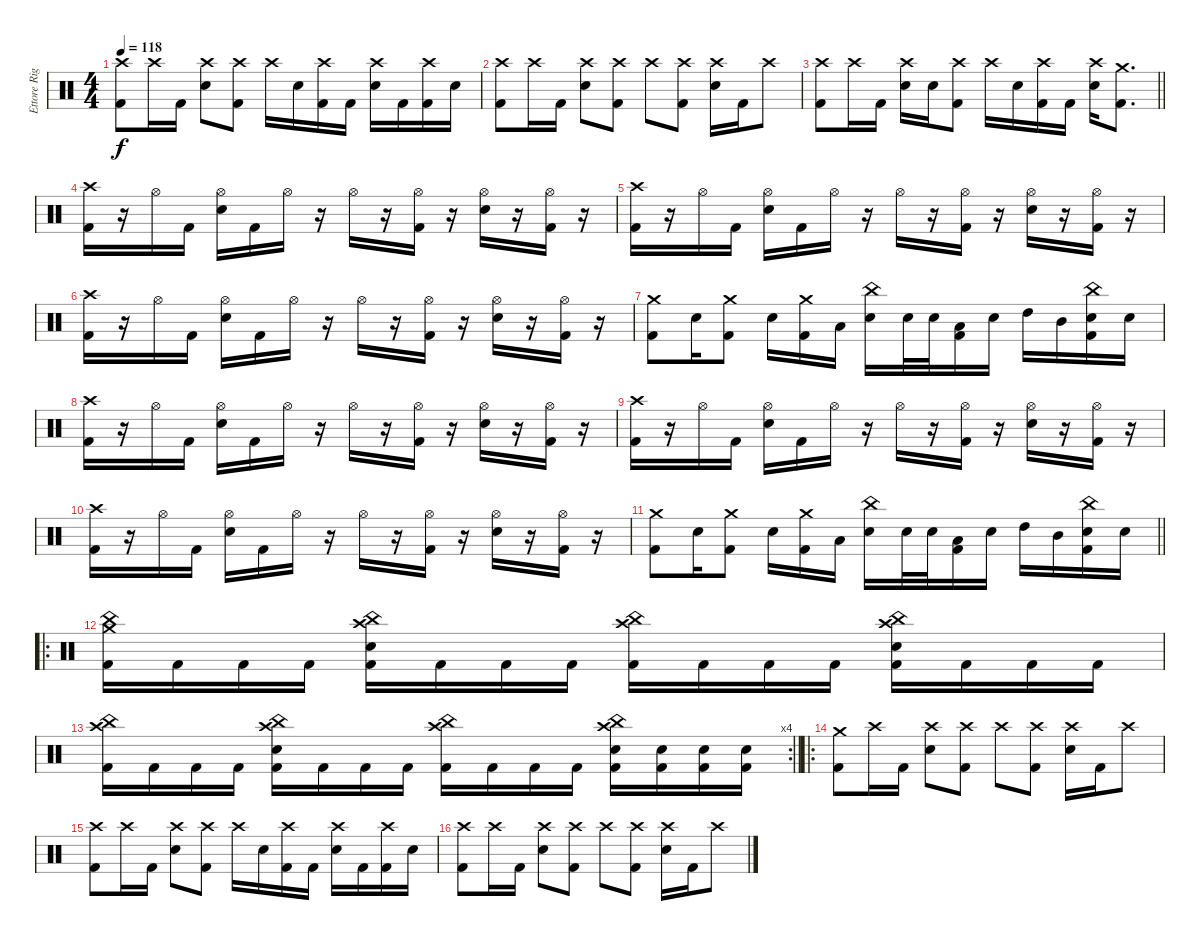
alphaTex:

\track ("Ettore Rigotti" "Ettore Rig") {instrument percussion}
\staff {score}
\articulation defaults
\ts (4 4)
\tempo 118
\clef neutral
\ks c
("Crash high (hit)" "Kick (hit) 2").8{dy f} "Crash high (hit)".16 "Kick (hit) 2".16 ("Crash high (hit)" "Electric Snare (hit)").8 ("Crash high (hit)" "Kick (hit) 2").8 "Crash high (hit)".16 "Electric Snare (hit)".16 ("Crash high (hit)" "Kick (hit) 2").16 "Kick (hit) 2".16 ("Crash high (hit)" "Electric Snare (hit)").16 "Kick (hit) 2".16 ("Crash high (hit)" "Kick (hit) 2").16 "Electric Snare (hit)".16 |
("Crash high (hit)" "Kick (hit) 2").8 "Crash high (hit)".16 "Kick (hit) 2".16 ("Crash high (hit)" "Electric Snare (hit)").8 ("Crash high (hit)" "Kick (hit) 2").8 "Crash high (hit)".8 ("Crash high (hit)" "Kick (hit) 2").8 ("Crash high (hit)" "Electric Snare (hit)").16 "Kick (hit) 2".16 "Crash high (hit)".8 |
\barLineRight lightlight
("Crash high (hit)" "Kick (hit) 2").8 "Crash high (hit)".16 "Kick (hit) 2".16 ("Crash high (hit)" "Electric Snare (hit)").16 "Electric Snare (hit)".16 ("Crash high (hit)" "Kick (hit) 2").8 "Crash high (hit)".16 "Electric Snare (hit)".16 ("Crash high (hit)" "Kick (hit) 2").16 "Kick (hit) 2".16 ("Crash high (hit)" "Electric Snare (hit)").16 ("Crash medium (hit)" "Kick (hit) 2").8{d} |
("Crash high (hit)" "Kick (hit) 2").16 r.16 "Hi-Hat (open)".16 "Kick (hit) 2".16 ("Hi-Hat (open)" "Electric Snare (hit)").16 "Kick (hit) 2".16 "Hi-Hat (open)".16 r.16 "Hi-Hat (open)".16 r.16 ("Hi-Hat (open)" "Kick (hit) 2").16 r.16 ("Hi-Hat (open)" "Electric Snare (hit)").16 r.16 ("Hi-Hat (open)" "Kick (hit) 2").16 r.16 |
("Crash high (hit)" "Kick (hit) 2").16 r.16 "Hi-Hat (open)".16 "Kick (hit) 2".16 ("Hi-Hat (open)" "Electric Snare (hit)").16 "Kick (hit) 2".16 "Hi-Hat (open)".16 r.16 "Hi-Hat (open)".16 r.16 ("Hi-Hat (open)" "Kick (hit) 2").16 r.16 ("Hi-Hat (open)" "Electric Snare (hit)").16 r.16 ("Hi-Hat (open)" "Kick (hit) 2").16 r.16 |
("Crash high (hit)" "Kick (hit) 2").16 r.16 "Hi-Hat (open)".16 "Kick (hit) 2".16 ("Hi-Hat (open)" "Electric Snare (hit)").16 "Kick (hit) 2".16 "Hi-Hat (open)".16 r.16 "Hi-Hat (open)".16 r.16 ("Hi-Hat (open)" "Kick (hit) 2").16 r.16 ("Hi-Hat (open)" "Electric Snare (hit)").16 r.16 ("Hi-Hat (open)" "Kick (hit) 2").16 r.16 |
("Crash medium (hit)" "Kick (hit) 2").8 "Electric Snare (hit)".16 ("Crash medium (hit)" "Kick (hit) 2").8 "Electric Snare (hit)".16 ("Crash medium (hit)" "Kick (hit) 2").16 "Low Tom (hit)".16 ("China (hit)" "Electric Snare (hit)").16 "Electric Snare (hit)".32 "Electric Snare (hit)".32 ("Low Tom (hit)" "Kick (hit) 2").16 "Electric Snare (hit)".16 "High Tom (hit)".16 "Mid Tom (hit)".16 ("China (hit)" "Electric Snare (hit)" "Kick (hit) 2").16 "Electric Snare (hit)".16 |
("Crash high (hit)" "Kick (hit) 2").16 r.16 "Hi-Hat (open)".16 "Kick (hit) 2".16 ("Hi-Hat (open)" "Electric Snare (hit)").16 "Kick (hit) 2".16 "Hi-Hat (open)".16 r.16 "Hi-Hat (open)".16 r.16 ("Hi-Hat (open)" "Kick (hit) 2").16 r.16 ("Hi-Hat (open)" "Electric Snare (hit)").16 r.16 ("Hi-Hat (open)" "Kick (hit) 2").16 r.16 |
("Crash high (hit)" "Kick (hit) 2").16 r.16 "Hi-Hat (open)".16 "Kick (hit) 2".16 ("Hi-Hat (open)" "Electric Snare (hit)").16 "Kick (hit) 2".16 "Hi-Hat (open)".16 r.16 "Hi-Hat (open)".16 r.16 ("Hi-Hat (open)" "Kick (hit) 2").16 r.16 ("Hi-Hat (open)" "Electric Snare (hit)").16 r.16 ("Hi-Hat (open)" "Kick (hit) 2").16 r.16 |
("Crash high (hit)" "Kick (hit) 2").16 r.16 "Hi-Hat (open)".16 "Kick (hit) 2".16 ("Hi-Hat (open)" "Electric Snare (hit)").16 "Kick (hit) 2".16 "Hi-Hat (open)".16 r.16 "Hi-Hat (open)".16 r.16 ("Hi-Hat (open)" "Kick (hit) 2").16 r.16 ("Hi-Hat (open)" "Electric Snare (hit)").16 r.16 ("Hi-Hat (open)" "Kick (hit) 2").16 r.16 |
\barLineRight lightlight
("Crash medium (hit)" "Kick (hit) 2").8 "Electric Snare (hit)".16 ("Crash medium (hit)" "Kick (hit) 2").8 "Electric Snare (hit)".16 ("Crash medium (hit)" "Kick (hit) 2").16 "Low Tom (hit)".16 ("China (hit)" "Electric Snare (hit)").16 "Electric Snare (hit)".32 "Electric Snare (hit)".32 ("Low Tom (hit)" "Kick (hit) 2").16 "Electric Snare (hit)".16 "High Tom (hit)".16 "Mid Tom (hit)".16 ("China (hit)" "Electric Snare (hit)" "Kick (hit) 2").16 "Electric Snare (hit)".16 |
\ro
("Crash medium (hit)" "China (hit)" "Kick (hit) 2").16 "Kick (hit) 2".16 "Kick (hit) 2".16 "Kick (hit) 2".16 ("China (hit)" "Crash high (hit)" "Electric Snare (hit)" "Kick (hit) 2").16 "Kick (hit) 2".16 "Kick (hit) 2".16 "Kick (hit) 2".16 ("China (hit)" "Crash high (hit)" "Kick (hit) 2").16 "Kick (hit) 2".16 "Kick (hit) 2".16 "Kick (hit) 2".16 ("China (hit)" "Crash high (hit)" "Electric Snare (hit)" "Kick (hit) 2").16 "Kick (hit) 2".16 "Kick (hit) 2".16 "Kick (hit) 2".16 |
\rc 4
\barLineRight lightlight
("China (hit)" "Crash high (hit)" "Kick (hit) 2").16 "Kick (hit) 2".16 "Kick (hit) 2".16 "Kick (hit) 2".16 ("China (hit)" "Crash high (hit)" "Electric Snare (hit)" "Kick (hit) 2").16 "Kick (hit) 2".16 "Kick (hit) 2".16 "Kick (hit) 2".16 ("China (hit)" "Crash high (hit)" "Kick (hit) 2").16 "Kick (hit) 2".16 "Kick (hit) 2".16 "Kick (hit) 2".16 ("China (hit)" "Crash high (hit)" "Electric Snare (hit)" "Kick (hit) 2").16 ("Electric Snare (hit)" "Kick (hit) 2").16 ("Electric Snare (hit)" "Kick (hit) 2").16 ("Electric Snare (hit)" "Kick (hit) 2").16 |
\ro
("Crash medium (hit)" "Kick (hit) 2").8 "Crash high (hit)".16 "Kick (hit) 2".16 ("Crash high (hit)" "Electric Snare (hit)").8 ("Crash high (hit)" "Kick (hit) 2").8 "Crash high (hit)".8 ("Crash high (hit)" "Kick (hit) 2").8 ("Crash high (hit)" "Electric Snare (hit)").16 "Kick (hit) 2".16 "Crash high (hit)".8 |
("Crash high (hit)" "Kick (hit) 2").8 "Crash high (hit)".16 "Kick (hit) 2".16 ("Crash high (hit)" "Electric Snare (hit)").8 ("Crash high (hit)" "Kick (hit) 2").8 "Crash high (hit)".16 "Electric Snare (hit)".16 ("Crash high (hit)" "Kick (hit) 2").16 "Kick (hit) 2".16 ("Crash high (hit)" "Electric Snare (hit)").16 "Kick (hit) 2".16 ("Crash high (hit)" "Kick (hit) 2").16 "Electric Snare (hit)".16 |
("Crash high (hit)" "Kick (hit) 2").8 "Crash high (hit)".16 "Kick (hit) 2".16 ("Crash high (hit)" "Electric Snare (hit)").8 ("Crash high (hit)" "Kick (hit) 2").8 "Crash high (hit)".8 ("Crash high (hit)" "Kick (hit) 2").8 ("Crash high (hit)" "Electric Snare (hit)").16 "Kick (hit) 2".16 "Crash high (hit)".8
